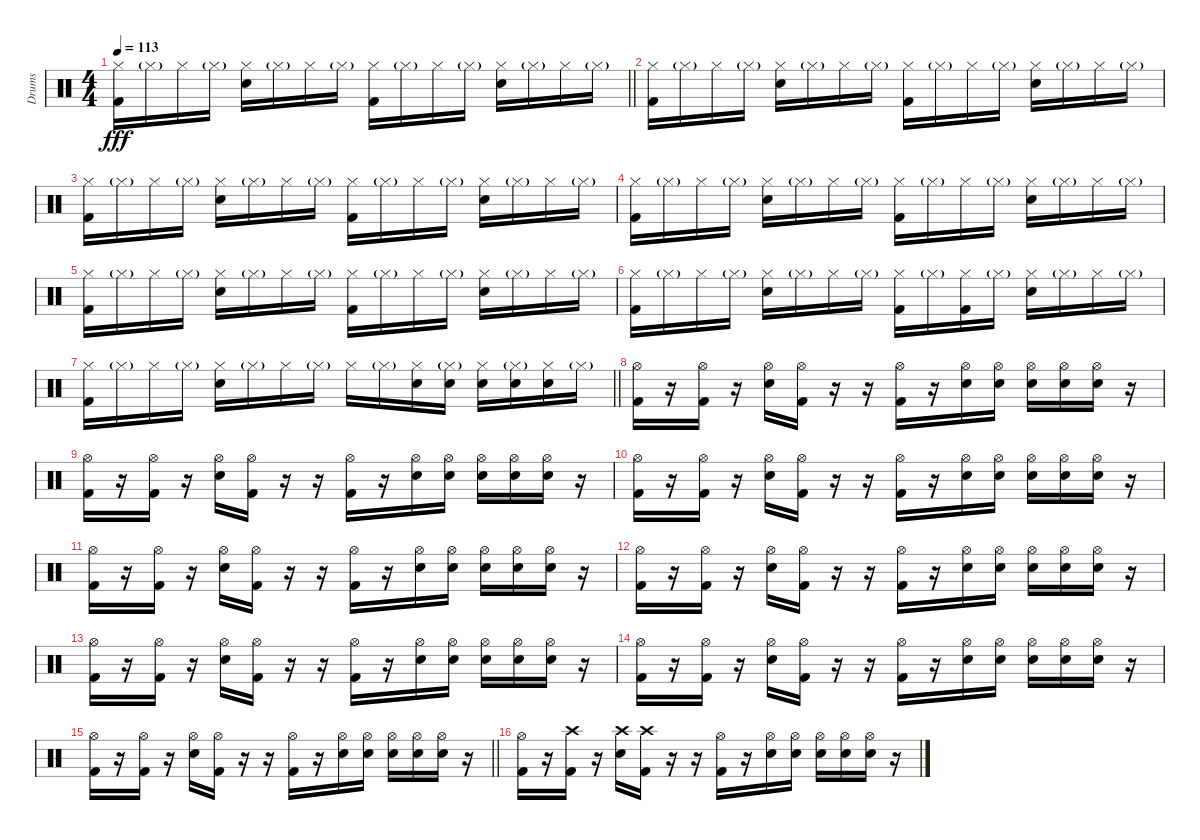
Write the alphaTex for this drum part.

\track ("Drums" "Drums") {instrument percussion}
\staff {score}
\articulation defaults
\ts (4 4)
\tempo 113
\clef neutral
\barLineRight lightlight
\ks c
("Hi-Hat (closed)" "Kick (hit) 2").16{dy fff} "Hi-Hat (closed)"{g}.16 "Hi-Hat (closed)".16 "Hi-Hat (closed)"{g}.16 ("Hi-Hat (closed)" "Electric Snare (hit)").16 "Hi-Hat (closed)"{g}.16 "Hi-Hat (closed)".16 "Hi-Hat (closed)"{g}.16 ("Hi-Hat (closed)" "Kick (hit) 2").16 "Hi-Hat (closed)"{g}.16 "Hi-Hat (closed)".16 "Hi-Hat (closed)"{g}.16 ("Hi-Hat (closed)" "Electric Snare (hit)").16 "Hi-Hat (closed)"{g}.16 "Hi-Hat (closed)".16 "Hi-Hat (closed)"{g}.16 |
("Hi-Hat (closed)" "Kick (hit) 2").16 "Hi-Hat (closed)"{g}.16 "Hi-Hat (closed)".16 "Hi-Hat (closed)"{g}.16 ("Hi-Hat (closed)" "Electric Snare (hit)").16 "Hi-Hat (closed)"{g}.16 "Hi-Hat (closed)".16 "Hi-Hat (closed)"{g}.16 ("Hi-Hat (closed)" "Kick (hit) 2").16 "Hi-Hat (closed)"{g}.16 "Hi-Hat (closed)".16 "Hi-Hat (closed)"{g}.16 ("Hi-Hat (closed)" "Electric Snare (hit)").16 "Hi-Hat (closed)"{g}.16 "Hi-Hat (closed)".16 "Hi-Hat (closed)"{g}.16 |
("Hi-Hat (closed)" "Kick (hit) 2").16 "Hi-Hat (closed)"{g}.16 "Hi-Hat (closed)".16 "Hi-Hat (closed)"{g}.16 ("Hi-Hat (closed)" "Electric Snare (hit)").16 "Hi-Hat (closed)"{g}.16 "Hi-Hat (closed)".16 "Hi-Hat (closed)"{g}.16 ("Hi-Hat (closed)" "Kick (hit) 2").16 "Hi-Hat (closed)"{g}.16 "Hi-Hat (closed)".16 "Hi-Hat (closed)"{g}.16 ("Hi-Hat (closed)" "Electric Snare (hit)").16 "Hi-Hat (closed)"{g}.16 "Hi-Hat (closed)".16 "Hi-Hat (closed)"{g}.16 |
("Hi-Hat (closed)" "Kick (hit) 2").16 "Hi-Hat (closed)"{g}.16 "Hi-Hat (closed)".16 "Hi-Hat (closed)"{g}.16 ("Hi-Hat (closed)" "Electric Snare (hit)").16 "Hi-Hat (closed)"{g}.16 "Hi-Hat (closed)".16 "Hi-Hat (closed)"{g}.16 ("Hi-Hat (closed)" "Kick (hit) 2").16 "Hi-Hat (closed)"{g}.16 "Hi-Hat (closed)".16 "Hi-Hat (closed)"{g}.16 ("Hi-Hat (closed)" "Electric Snare (hit)").16 "Hi-Hat (closed)"{g}.16 "Hi-Hat (closed)".16 "Hi-Hat (closed)"{g}.16 |
("Hi-Hat (closed)" "Kick (hit) 2").16 "Hi-Hat (closed)"{g}.16 "Hi-Hat (closed)".16 "Hi-Hat (closed)"{g}.16 ("Hi-Hat (closed)" "Electric Snare (hit)").16 "Hi-Hat (closed)"{g}.16 "Hi-Hat (closed)".16 "Hi-Hat (closed)"{g}.16 ("Hi-Hat (closed)" "Kick (hit) 2").16 "Hi-Hat (closed)"{g}.16 "Hi-Hat (closed)".16 "Hi-Hat (closed)"{g}.16 ("Hi-Hat (closed)" "Electric Snare (hit)").16 "Hi-Hat (closed)"{g}.16 "Hi-Hat (closed)".16 "Hi-Hat (closed)"{g}.16 |
("Hi-Hat (closed)" "Kick (hit) 2").16 "Hi-Hat (closed)"{g}.16 "Hi-Hat (closed)".16 "Hi-Hat (closed)"{g}.16 ("Hi-Hat (closed)" "Electric Snare (hit)").16 "Hi-Hat (closed)"{g}.16 "Hi-Hat (closed)".16 "Hi-Hat (closed)"{g}.16 ("Hi-Hat (closed)" "Kick (hit) 2").16 "Hi-Hat (closed)"{g}.16 ("Hi-Hat (closed)" "Kick (hit) 2").16 "Hi-Hat (closed)"{g}.16 ("Hi-Hat (closed)" "Electric Snare (hit)").16 "Hi-Hat (closed)"{g}.16 "Hi-Hat (closed)".16 "Hi-Hat (closed)"{g}.16 |
\barLineRight lightlight
("Hi-Hat (closed)" "Kick (hit) 2").16 "Hi-Hat (closed)"{g}.16 "Hi-Hat (closed)".16 "Hi-Hat (closed)"{g}.16 ("Hi-Hat (closed)" "Electric Snare (hit)").16 "Hi-Hat (closed)"{g}.16 "Hi-Hat (closed)".16 "Hi-Hat (closed)"{g}.16 "Hi-Hat (closed)".16 "Hi-Hat (closed)"{g}.16 ("Hi-Hat (closed)" "Electric Snare (hit)").16 ("Hi-Hat (closed)"{g} "Electric Snare (hit)").16 ("Hi-Hat (closed)" "Electric Snare (hit)").16 ("Hi-Hat (closed)"{g} "Electric Snare (hit)").16 ("Hi-Hat (closed)" "Electric Snare (hit)").16 "Hi-Hat (closed)"{g}.16 |
("Hi-Hat (open)" "Kick (hit) 2").16 r.16 ("Hi-Hat (open)" "Kick (hit) 2").16 r.16 ("Hi-Hat (open)" "Electric Snare (hit)").16 ("Hi-Hat (open)" "Kick (hit) 2").16 r.16 r.16 ("Hi-Hat (open)" "Kick (hit) 2").16 r.16 ("Hi-Hat (open)" "Electric Snare (hit)").16 ("Hi-Hat (open)" "Electric Snare (hit)").16 ("Hi-Hat (open)" "Electric Snare (hit)").16 ("Hi-Hat (open)" "Electric Snare (hit)").16 ("Hi-Hat (open)" "Electric Snare (hit)").16 r.16 |
("Hi-Hat (open)" "Kick (hit) 2").16 r.16 ("Hi-Hat (open)" "Kick (hit) 2").16 r.16 ("Hi-Hat (open)" "Electric Snare (hit)").16 ("Hi-Hat (open)" "Kick (hit) 2").16 r.16 r.16 ("Hi-Hat (open)" "Kick (hit) 2").16 r.16 ("Hi-Hat (open)" "Electric Snare (hit)").16 ("Hi-Hat (open)" "Electric Snare (hit)").16 ("Hi-Hat (open)" "Electric Snare (hit)").16 ("Hi-Hat (open)" "Electric Snare (hit)").16 ("Hi-Hat (open)" "Electric Snare (hit)").16 r.16 |
("Hi-Hat (open)" "Kick (hit) 2").16 r.16 ("Hi-Hat (open)" "Kick (hit) 2").16 r.16 ("Hi-Hat (open)" "Electric Snare (hit)").16 ("Hi-Hat (open)" "Kick (hit) 2").16 r.16 r.16 ("Hi-Hat (open)" "Kick (hit) 2").16 r.16 ("Hi-Hat (open)" "Electric Snare (hit)").16 ("Hi-Hat (open)" "Electric Snare (hit)").16 ("Hi-Hat (open)" "Electric Snare (hit)").16 ("Hi-Hat (open)" "Electric Snare (hit)").16 ("Hi-Hat (open)" "Electric Snare (hit)").16 r.16 |
("Hi-Hat (open)" "Kick (hit) 2").16 r.16 ("Hi-Hat (open)" "Kick (hit) 2").16 r.16 ("Hi-Hat (open)" "Electric Snare (hit)").16 ("Hi-Hat (open)" "Kick (hit) 2").16 r.16 r.16 ("Hi-Hat (open)" "Kick (hit) 2").16 r.16 ("Hi-Hat (open)" "Electric Snare (hit)").16 ("Hi-Hat (open)" "Electric Snare (hit)").16 ("Hi-Hat (open)" "Electric Snare (hit)").16 ("Hi-Hat (open)" "Electric Snare (hit)").16 ("Hi-Hat (open)" "Electric Snare (hit)").16 r.16 |
("Hi-Hat (open)" "Kick (hit) 2").16 r.16 ("Hi-Hat (open)" "Kick (hit) 2").16 r.16 ("Hi-Hat (open)" "Electric Snare (hit)").16 ("Hi-Hat (open)" "Kick (hit) 2").16 r.16 r.16 ("Hi-Hat (open)" "Kick (hit) 2").16 r.16 ("Hi-Hat (open)" "Electric Snare (hit)").16 ("Hi-Hat (open)" "Electric Snare (hit)").16 ("Hi-Hat (open)" "Electric Snare (hit)").16 ("Hi-Hat (open)" "Electric Snare (hit)").16 ("Hi-Hat (open)" "Electric Snare (hit)").16 r.16 |
("Hi-Hat (open)" "Kick (hit) 2").16 r.16 ("Hi-Hat (open)" "Kick (hit) 2").16 r.16 ("Hi-Hat (open)" "Electric Snare (hit)").16 ("Hi-Hat (open)" "Kick (hit) 2").16 r.16 r.16 ("Hi-Hat (open)" "Kick (hit) 2").16 r.16 ("Hi-Hat (open)" "Electric Snare (hit)").16 ("Hi-Hat (open)" "Electric Snare (hit)").16 ("Hi-Hat (open)" "Electric Snare (hit)").16 ("Hi-Hat (open)" "Electric Snare (hit)").16 ("Hi-Hat (open)" "Electric Snare (hit)").16 r.16 |
("Hi-Hat (open)" "Kick (hit) 2").16 r.16 ("Hi-Hat (open)" "Kick (hit) 2").16 r.16 ("Hi-Hat (open)" "Electric Snare (hit)").16 ("Hi-Hat (open)" "Kick (hit) 2").16 r.16 r.16 ("Hi-Hat (open)" "Kick (hit) 2").16 r.16 ("Hi-Hat (open)" "Electric Snare (hit)").16 ("Hi-Hat (open)" "Electric Snare (hit)").16 ("Hi-Hat (open)" "Electric Snare (hit)").16 ("Hi-Hat (open)" "Electric Snare (hit)").16 ("Hi-Hat (open)" "Electric Snare (hit)").16 r.16 |
\barLineRight lightlight
("Hi-Hat (open)" "Kick (hit) 2").16 r.16 ("Hi-Hat (open)" "Kick (hit) 2").16 r.16 ("Hi-Hat (open)" "Electric Snare (hit)").16 ("Hi-Hat (open)" "Kick (hit) 2").16 r.16 r.16 ("Hi-Hat (open)" "Kick (hit) 2").16 r.16 ("Hi-Hat (open)" "Electric Snare (hit)").16 ("Hi-Hat (open)" "Electric Snare (hit)").16 ("Hi-Hat (open)" "Electric Snare (hit)").16 ("Hi-Hat (open)" "Electric Snare (hit)").16 ("Hi-Hat (open)" "Electric Snare (hit)").16 r.16 |
("Hi-Hat (open)" "Kick (hit) 2").16 r.16 ("Crash high (hit)" "Kick (hit) 2").16 r.16 ("Crash high (hit)" "Electric Snare (hit)").16 ("Crash high (hit)" "Kick (hit) 2").16 r.16 r.16 ("Hi-Hat (open)" "Kick (hit) 2").16 r.16 ("Hi-Hat (open)" "Electric Snare (hit)").16 ("Hi-Hat (open)" "Electric Snare (hit)").16 ("Hi-Hat (open)" "Electric Snare (hit)").16 ("Hi-Hat (open)" "Electric Snare (hit)").16 ("Hi-Hat (open)" "Electric Snare (hit)").16 r.16
